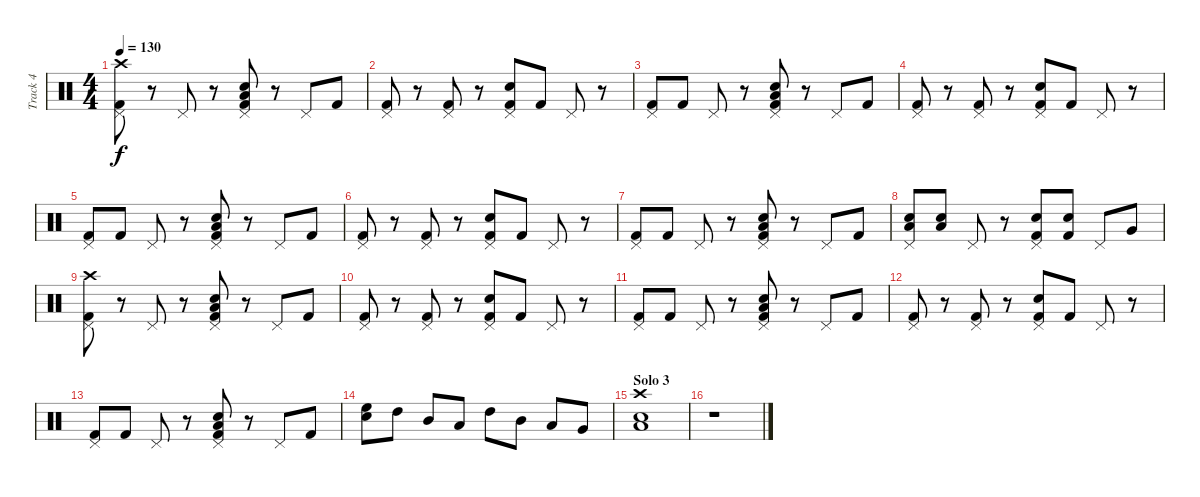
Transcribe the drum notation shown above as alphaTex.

\track ("Track 4" "Track 4") {instrument percussion}
\staff {score}
\articulation defaults
\ts (4 4)
\tempo 130
\clef neutral
\ks c
("Kick (hit) 2" "Pedal Hi-Hat (hit)" "Crash high (hit)").8{dy f} r.8 "Pedal Hi-Hat (hit)".8 r.8 ("Low Tom (hit)" "Snare (hit) 2" "Kick (hit) 2" "Pedal Hi-Hat (hit)").8 r.8 "Pedal Hi-Hat (hit)".8 "Kick (hit) 2".8 |
("Kick (hit) 2" "Pedal Hi-Hat (hit)").8 r.8 ("Pedal Hi-Hat (hit)" "Kick (hit) 2").8 r.8 ("Pedal Hi-Hat (hit)" "Kick (hit) 2" "Snare (hit) 2").8 "Kick (hit) 2".8 "Pedal Hi-Hat (hit)".8 r.8 |
("Kick (hit) 2" "Pedal Hi-Hat (hit)").8 "Kick (hit) 2".8 "Pedal Hi-Hat (hit)".8 r.8 ("Low Tom (hit)" "Snare (hit) 2" "Kick (hit) 2" "Pedal Hi-Hat (hit)").8 r.8 "Pedal Hi-Hat (hit)".8 "Kick (hit) 2".8 |
("Kick (hit) 2" "Pedal Hi-Hat (hit)").8 r.8 ("Pedal Hi-Hat (hit)" "Kick (hit) 2").8 r.8 ("Pedal Hi-Hat (hit)" "Kick (hit) 2" "Snare (hit) 2").8 "Kick (hit) 2".8 "Pedal Hi-Hat (hit)".8 r.8 |
("Kick (hit) 2" "Pedal Hi-Hat (hit)").8 "Kick (hit) 2".8 "Pedal Hi-Hat (hit)".8 r.8 ("Low Tom (hit)" "Snare (hit) 2" "Kick (hit) 2" "Pedal Hi-Hat (hit)").8 r.8 "Pedal Hi-Hat (hit)".8 "Kick (hit) 2".8 |
("Kick (hit) 2" "Pedal Hi-Hat (hit)").8 r.8 ("Pedal Hi-Hat (hit)" "Kick (hit) 2").8 r.8 ("Pedal Hi-Hat (hit)" "Kick (hit) 2" "Snare (hit) 2").8 "Kick (hit) 2".8 "Pedal Hi-Hat (hit)".8 r.8 |
("Kick (hit) 2" "Pedal Hi-Hat (hit)").8 "Kick (hit) 2".8 "Pedal Hi-Hat (hit)".8 r.8 ("Low Tom (hit)" "Snare (hit) 2" "Kick (hit) 2" "Pedal Hi-Hat (hit)").8 r.8 "Pedal Hi-Hat (hit)".8 "Kick (hit) 2".8 |
("Electric Snare (hit)" "Low Tom (hit)" "Pedal Hi-Hat (hit)").8 ("Electric Snare (hit)" "Low Tom (hit)").8 "Pedal Hi-Hat (hit)".8 r.8 ("Pedal Hi-Hat (hit)" "Kick (hit) 2" "Electric Snare (hit)").8 ("Kick (hit) 2" "Electric Snare (hit)").8 "Pedal Hi-Hat (hit)".8 "Very Low Tom (hit)".8 |
("Kick (hit) 2" "Pedal Hi-Hat (hit)" "Crash high (hit)").8 r.8 "Pedal Hi-Hat (hit)".8 r.8 ("Low Tom (hit)" "Snare (hit) 2" "Kick (hit) 2" "Pedal Hi-Hat (hit)").8 r.8 "Pedal Hi-Hat (hit)".8 "Kick (hit) 2".8 |
("Kick (hit) 2" "Pedal Hi-Hat (hit)").8 r.8 ("Pedal Hi-Hat (hit)" "Kick (hit) 2").8 r.8 ("Pedal Hi-Hat (hit)" "Kick (hit) 2" "Snare (hit) 2").8 "Kick (hit) 2".8 "Pedal Hi-Hat (hit)".8 r.8 |
("Kick (hit) 2" "Pedal Hi-Hat (hit)").8 "Kick (hit) 2".8 "Pedal Hi-Hat (hit)".8 r.8 ("Low Tom (hit)" "Snare (hit) 2" "Kick (hit) 2" "Pedal Hi-Hat (hit)").8 r.8 "Pedal Hi-Hat (hit)".8 "Kick (hit) 2".8 |
("Kick (hit) 2" "Pedal Hi-Hat (hit)").8 r.8 ("Pedal Hi-Hat (hit)" "Kick (hit) 2").8 r.8 ("Pedal Hi-Hat (hit)" "Kick (hit) 2" "Snare (hit) 2").8 "Kick (hit) 2".8 "Pedal Hi-Hat (hit)".8 r.8 |
("Kick (hit) 2" "Pedal Hi-Hat (hit)").8 "Kick (hit) 2".8 "Pedal Hi-Hat (hit)".8 r.8 ("Low Tom (hit)" "Snare (hit) 2" "Kick (hit) 2" "Pedal Hi-Hat (hit)").8 r.8 "Pedal Hi-Hat (hit)".8 "Kick (hit) 2".8 |
("High Floor Tom (hit)" "Electric Snare (hit)").8 "High Tom (hit)".8 "Mid Tom (hit)".8 "Low Tom (hit)".8 "High Tom (hit)".8 "Mid Tom (hit)".8 "Low Tom (hit)".8 "Very Low Tom (hit)".8 |
\section ("" "Solo 3")
("Low Tom (hit)" "Electric Snare (hit)" "Crash high (hit)").1 |
r.1
